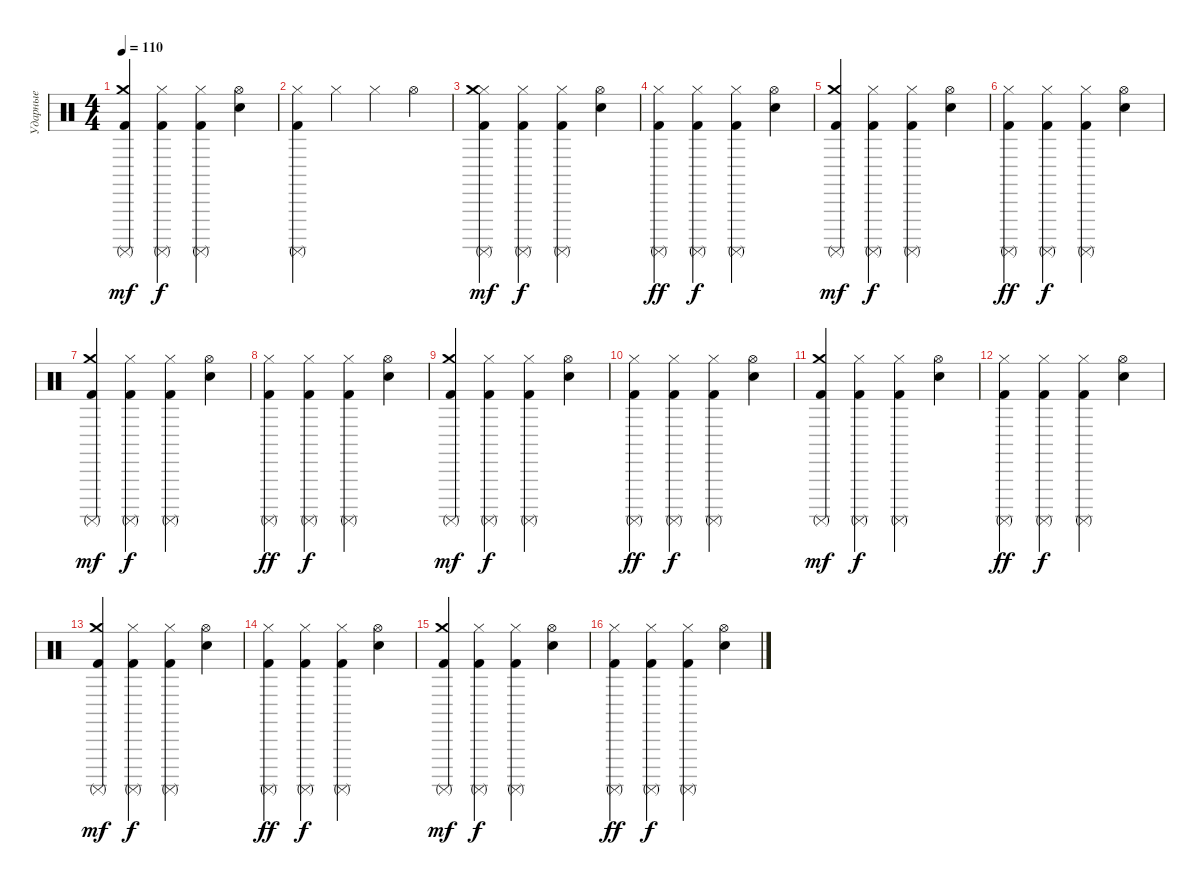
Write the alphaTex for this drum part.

\track ("Ударные" "Ударные") {instrument percussion}
\staff {score}
\articulation defaults
\ts (4 4)
\tempo 110
\clef neutral
\ks c
("Crash medium (hit)" "Kick (hit) 2" "Surdo (mute)").4{dy mf} ("Hi-Hat (closed)" "Kick (hit) 2" "Surdo (mute)").4{dy f} ("Hi-Hat (closed)" "Kick (hit) 2" "Surdo (mute)").4 ("Hi-Hat (open)" "Electric Snare (hit)").4 |
("Hi-Hat (closed)" "Kick (hit) 2" "Surdo (mute)").4 "Hi-Hat (closed)".4 "Hi-Hat (closed)".4 "Hi-Hat (open)".4 |
("Hi-Hat (closed)" "Kick (hit) 2" "Surdo (mute)" "Crash medium (hit)").4{dy mf} ("Hi-Hat (closed)" "Kick (hit) 2" "Surdo (mute)").4{dy f} ("Hi-Hat (closed)" "Kick (hit) 2" "Surdo (mute)").4 ("Hi-Hat (open)" "Electric Snare (hit)").4 |
("Hi-Hat (closed)" "Kick (hit) 2" "Surdo (mute)").4{dy ff} ("Hi-Hat (closed)" "Kick (hit) 2" "Surdo (mute)").4{dy f} ("Hi-Hat (closed)" "Kick (hit) 2" "Surdo (mute)").4 ("Hi-Hat (open)" "Electric Snare (hit)").4 |
("Crash medium (hit)" "Kick (hit) 2" "Surdo (mute)").4{dy mf} ("Hi-Hat (closed)" "Kick (hit) 2" "Surdo (mute)").4{dy f} ("Hi-Hat (closed)" "Kick (hit) 2" "Surdo (mute)").4 ("Hi-Hat (open)" "Electric Snare (hit)").4 |
("Hi-Hat (closed)" "Kick (hit) 2" "Surdo (mute)").4{dy ff} ("Hi-Hat (closed)" "Kick (hit) 2" "Surdo (mute)").4{dy f} ("Hi-Hat (closed)" "Kick (hit) 2" "Surdo (mute)").4 ("Hi-Hat (open)" "Electric Snare (hit)").4 |
("Crash medium (hit)" "Kick (hit) 2" "Surdo (mute)").4{dy mf} ("Hi-Hat (closed)" "Kick (hit) 2" "Surdo (mute)").4{dy f} ("Hi-Hat (closed)" "Kick (hit) 2" "Surdo (mute)").4 ("Hi-Hat (open)" "Electric Snare (hit)").4 |
("Hi-Hat (closed)" "Kick (hit) 2" "Surdo (mute)").4{dy ff} ("Hi-Hat (closed)" "Kick (hit) 2" "Surdo (mute)").4{dy f} ("Hi-Hat (closed)" "Kick (hit) 2" "Surdo (mute)").4 ("Hi-Hat (open)" "Electric Snare (hit)").4 |
("Crash medium (hit)" "Kick (hit) 2" "Surdo (mute)").4{dy mf} ("Hi-Hat (closed)" "Kick (hit) 2" "Surdo (mute)").4{dy f} ("Hi-Hat (closed)" "Kick (hit) 2" "Surdo (mute)").4 ("Hi-Hat (open)" "Electric Snare (hit)").4 |
("Hi-Hat (closed)" "Kick (hit) 2" "Surdo (mute)").4{dy ff} ("Hi-Hat (closed)" "Kick (hit) 2" "Surdo (mute)").4{dy f} ("Hi-Hat (closed)" "Kick (hit) 2" "Surdo (mute)").4 ("Hi-Hat (open)" "Electric Snare (hit)").4 |
("Crash medium (hit)" "Kick (hit) 2" "Surdo (mute)").4{dy mf} ("Hi-Hat (closed)" "Kick (hit) 2" "Surdo (mute)").4{dy f} ("Hi-Hat (closed)" "Kick (hit) 2" "Surdo (mute)").4 ("Hi-Hat (open)" "Electric Snare (hit)").4 |
("Hi-Hat (closed)" "Kick (hit) 2" "Surdo (mute)").4{dy ff} ("Hi-Hat (closed)" "Kick (hit) 2" "Surdo (mute)").4{dy f} ("Hi-Hat (closed)" "Kick (hit) 2" "Surdo (mute)").4 ("Hi-Hat (open)" "Electric Snare (hit)").4 |
("Crash medium (hit)" "Kick (hit) 2" "Surdo (mute)").4{dy mf} ("Hi-Hat (closed)" "Kick (hit) 2" "Surdo (mute)").4{dy f} ("Hi-Hat (closed)" "Kick (hit) 2" "Surdo (mute)").4 ("Hi-Hat (open)" "Electric Snare (hit)").4 |
("Hi-Hat (closed)" "Kick (hit) 2" "Surdo (mute)").4{dy ff} ("Hi-Hat (closed)" "Kick (hit) 2" "Surdo (mute)").4{dy f} ("Hi-Hat (closed)" "Kick (hit) 2" "Surdo (mute)").4 ("Hi-Hat (open)" "Electric Snare (hit)").4 |
("Crash medium (hit)" "Kick (hit) 2" "Surdo (mute)").4{dy mf} ("Hi-Hat (closed)" "Kick (hit) 2" "Surdo (mute)").4{dy f} ("Hi-Hat (closed)" "Kick (hit) 2" "Surdo (mute)").4 ("Hi-Hat (open)" "Electric Snare (hit)").4 |
("Hi-Hat (closed)" "Kick (hit) 2" "Surdo (mute)").4{dy ff} ("Hi-Hat (closed)" "Kick (hit) 2" "Surdo (mute)").4{dy f} ("Hi-Hat (closed)" "Kick (hit) 2" "Surdo (mute)").4 ("Hi-Hat (open)" "Electric Snare (hit)").4
